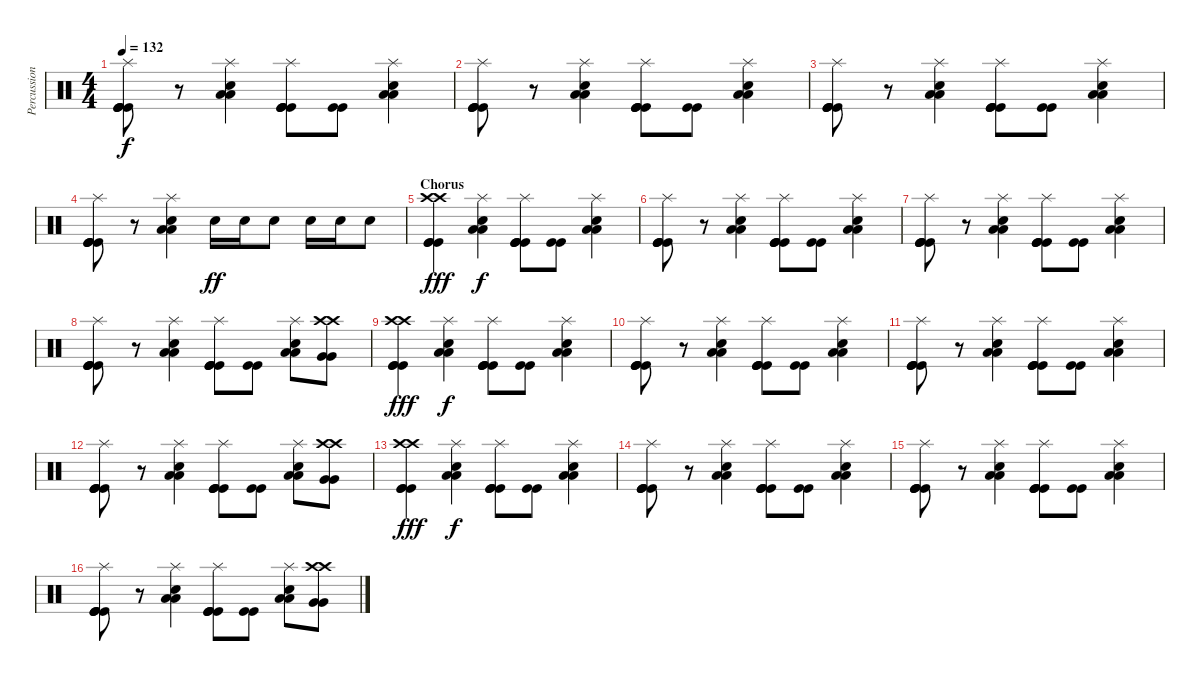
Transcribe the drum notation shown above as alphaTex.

\track ("Percussion" "Percussion") {instrument percussion}
\staff {score}
\articulation defaults
\ts (4 4)
\tempo 132
\clef neutral
\ks c
("Splash (hit)" "Kick (hit)" "Kick (hit)" "Kick (hit)" "Kick (hit)").8{dy f} r.8 ("Splash (hit)" "Low Tom (hit)" "Low Tom (hit)" "Electric Snare (hit)").4 ("Splash (hit)" "Kick (hit)" "Kick (hit)" "Kick (hit)" "Kick (hit)").8 ("Kick (hit)" "Kick (hit)").8 ("Splash (hit)" "Low Tom (hit)" "Low Tom (hit)" "Electric Snare (hit)").4 |
("Splash (hit)" "Kick (hit)" "Kick (hit)" "Kick (hit)" "Kick (hit)").8 r.8 ("Splash (hit)" "Low Tom (hit)" "Low Tom (hit)" "Electric Snare (hit)").4 ("Splash (hit)" "Kick (hit)" "Kick (hit)" "Kick (hit)" "Kick (hit)").8 ("Kick (hit)" "Kick (hit)").8 ("Splash (hit)" "Low Tom (hit)" "Low Tom (hit)" "Electric Snare (hit)").4 |
("Splash (hit)" "Kick (hit)" "Kick (hit)" "Kick (hit)" "Kick (hit)").8 r.8 ("Splash (hit)" "Low Tom (hit)" "Low Tom (hit)" "Electric Snare (hit)").4 ("Splash (hit)" "Kick (hit)" "Kick (hit)" "Kick (hit)" "Kick (hit)").8 ("Kick (hit)" "Kick (hit)").8 ("Splash (hit)" "Low Tom (hit)" "Low Tom (hit)" "Electric Snare (hit)").4 |
("Splash (hit)" "Kick (hit)" "Kick (hit)" "Kick (hit)" "Kick (hit)").8 r.8 ("Splash (hit)" "Low Tom (hit)" "Low Tom (hit)" "Electric Snare (hit)").4 "Electric Snare (hit)".16{dy ff} "Electric Snare (hit)".16 "Electric Snare (hit)".8 "Electric Snare (hit)".16 "Electric Snare (hit)".16 "Electric Snare (hit)".8 |
\section ("" "Chorus")
("Crash high (hit)" "Crash high (hit)" "Kick (hit)" "Kick (hit)" "Kick (hit)").4{dy fff} ("Splash (hit)" "Low Tom (hit)" "Low Tom (hit)" "Electric Snare (hit)").4{dy f} ("Splash (hit)" "Kick (hit)" "Kick (hit)" "Kick (hit)" "Kick (hit)").8 ("Kick (hit)" "Kick (hit)").8 ("Splash (hit)" "Low Tom (hit)" "Low Tom (hit)" "Electric Snare (hit)").4 |
("Splash (hit)" "Kick (hit)" "Kick (hit)" "Kick (hit)" "Kick (hit)").8 r.8 ("Splash (hit)" "Low Tom (hit)" "Low Tom (hit)" "Electric Snare (hit)").4 ("Splash (hit)" "Kick (hit)" "Kick (hit)" "Kick (hit)" "Kick (hit)").8 ("Kick (hit)" "Kick (hit)").8 ("Splash (hit)" "Low Tom (hit)" "Low Tom (hit)" "Electric Snare (hit)").4 |
("Splash (hit)" "Kick (hit)" "Kick (hit)" "Kick (hit)" "Kick (hit)").8 r.8 ("Splash (hit)" "Low Tom (hit)" "Low Tom (hit)" "Electric Snare (hit)").4 ("Splash (hit)" "Kick (hit)" "Kick (hit)" "Kick (hit)" "Kick (hit)").8 ("Kick (hit)" "Kick (hit)").8 ("Splash (hit)" "Low Tom (hit)" "Low Tom (hit)" "Electric Snare (hit)").4 |
("Splash (hit)" "Kick (hit)" "Kick (hit)" "Kick (hit)" "Kick (hit)").8 r.8 ("Splash (hit)" "Low Tom (hit)" "Low Tom (hit)" "Electric Snare (hit)").4 ("Splash (hit)" "Kick (hit)" "Kick (hit)" "Kick (hit)" "Kick (hit)").8 ("Kick (hit)" "Kick (hit)").8 ("Splash (hit)" "Low Tom (hit)" "Low Tom (hit)" "Electric Snare (hit)").8 ("Crash high (hit)" "Crash high (hit)" "Very Low Tom (hit)" "Very Low Tom (hit)").8 |
("Crash high (hit)" "Crash high (hit)" "Kick (hit)" "Kick (hit)" "Kick (hit)").4{dy fff} ("Splash (hit)" "Low Tom (hit)" "Low Tom (hit)" "Electric Snare (hit)").4{dy f} ("Splash (hit)" "Kick (hit)" "Kick (hit)" "Kick (hit)" "Kick (hit)").8 ("Kick (hit)" "Kick (hit)").8 ("Splash (hit)" "Low Tom (hit)" "Low Tom (hit)" "Electric Snare (hit)").4 |
("Splash (hit)" "Kick (hit)" "Kick (hit)" "Kick (hit)" "Kick (hit)").8 r.8 ("Splash (hit)" "Low Tom (hit)" "Low Tom (hit)" "Electric Snare (hit)").4 ("Splash (hit)" "Kick (hit)" "Kick (hit)" "Kick (hit)" "Kick (hit)").8 ("Kick (hit)" "Kick (hit)").8 ("Splash (hit)" "Low Tom (hit)" "Low Tom (hit)" "Electric Snare (hit)").4 |
("Splash (hit)" "Kick (hit)" "Kick (hit)" "Kick (hit)" "Kick (hit)").8 r.8 ("Splash (hit)" "Low Tom (hit)" "Low Tom (hit)" "Electric Snare (hit)").4 ("Splash (hit)" "Kick (hit)" "Kick (hit)" "Kick (hit)" "Kick (hit)").8 ("Kick (hit)" "Kick (hit)").8 ("Splash (hit)" "Low Tom (hit)" "Low Tom (hit)" "Electric Snare (hit)").4 |
("Splash (hit)" "Kick (hit)" "Kick (hit)" "Kick (hit)" "Kick (hit)").8 r.8 ("Splash (hit)" "Low Tom (hit)" "Low Tom (hit)" "Electric Snare (hit)").4 ("Splash (hit)" "Kick (hit)" "Kick (hit)" "Kick (hit)" "Kick (hit)").8 ("Kick (hit)" "Kick (hit)").8 ("Splash (hit)" "Low Tom (hit)" "Low Tom (hit)" "Electric Snare (hit)").8 ("Crash high (hit)" "Crash high (hit)" "Very Low Tom (hit)" "Very Low Tom (hit)").8 |
("Crash high (hit)" "Crash high (hit)" "Kick (hit)" "Kick (hit)" "Kick (hit)").4{dy fff} ("Splash (hit)" "Low Tom (hit)" "Low Tom (hit)" "Electric Snare (hit)").4{dy f} ("Splash (hit)" "Kick (hit)" "Kick (hit)" "Kick (hit)" "Kick (hit)").8 ("Kick (hit)" "Kick (hit)").8 ("Splash (hit)" "Low Tom (hit)" "Low Tom (hit)" "Electric Snare (hit)").4 |
("Splash (hit)" "Kick (hit)" "Kick (hit)" "Kick (hit)" "Kick (hit)").8 r.8 ("Splash (hit)" "Low Tom (hit)" "Low Tom (hit)" "Electric Snare (hit)").4 ("Splash (hit)" "Kick (hit)" "Kick (hit)" "Kick (hit)" "Kick (hit)").8 ("Kick (hit)" "Kick (hit)").8 ("Splash (hit)" "Low Tom (hit)" "Low Tom (hit)" "Electric Snare (hit)").4 |
("Splash (hit)" "Kick (hit)" "Kick (hit)" "Kick (hit)" "Kick (hit)").8 r.8 ("Splash (hit)" "Low Tom (hit)" "Low Tom (hit)" "Electric Snare (hit)").4 ("Splash (hit)" "Kick (hit)" "Kick (hit)" "Kick (hit)" "Kick (hit)").8 ("Kick (hit)" "Kick (hit)").8 ("Splash (hit)" "Low Tom (hit)" "Low Tom (hit)" "Electric Snare (hit)").4 |
("Splash (hit)" "Kick (hit)" "Kick (hit)" "Kick (hit)" "Kick (hit)").8 r.8 ("Splash (hit)" "Low Tom (hit)" "Low Tom (hit)" "Electric Snare (hit)").4 ("Splash (hit)" "Kick (hit)" "Kick (hit)" "Kick (hit)" "Kick (hit)").8 ("Kick (hit)" "Kick (hit)").8 ("Splash (hit)" "Low Tom (hit)" "Low Tom (hit)" "Electric Snare (hit)").8 ("Crash high (hit)" "Crash high (hit)" "Very Low Tom (hit)" "Very Low Tom (hit)").8
